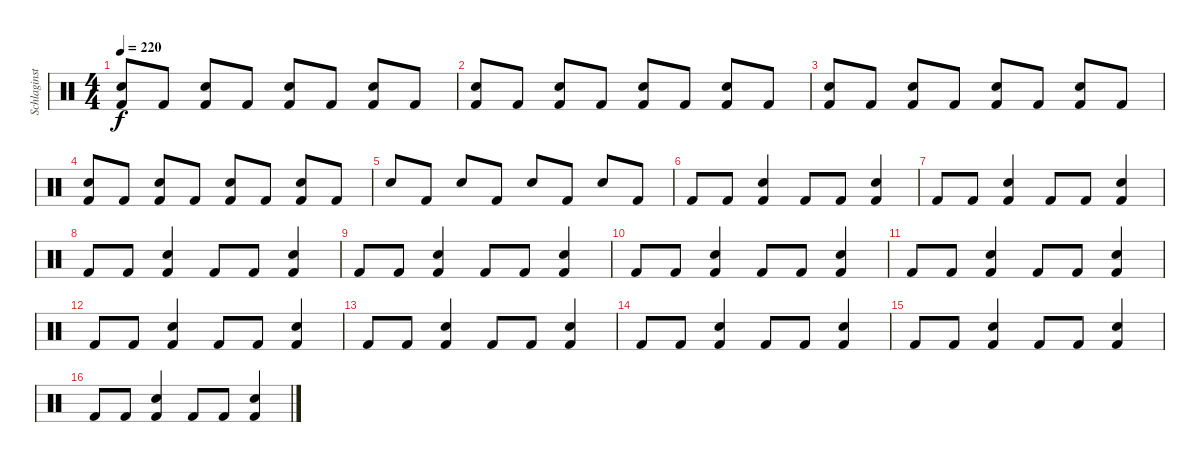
\track ("Schlaginstrumente - Auswahl" "Schlaginst") {instrument percussion}
\staff {score}
\articulation defaults
\ts (4 4)
\tempo 220
\clef neutral
\ks c
("Snare (hit) 2" "Kick (hit) 2").8{dy f} "Kick (hit) 2".8 ("Snare (hit) 2" "Kick (hit) 2").8 "Kick (hit) 2".8 ("Snare (hit) 2" "Kick (hit) 2").8 "Kick (hit) 2".8 ("Snare (hit) 2" "Kick (hit) 2").8 "Kick (hit) 2".8 |
("Snare (hit) 2" "Kick (hit) 2").8 "Kick (hit) 2".8 ("Snare (hit) 2" "Kick (hit) 2").8 "Kick (hit) 2".8 ("Snare (hit) 2" "Kick (hit) 2").8 "Kick (hit) 2".8 ("Snare (hit) 2" "Kick (hit) 2").8 "Kick (hit) 2".8 |
("Snare (hit) 2" "Kick (hit) 2").8 "Kick (hit) 2".8 ("Snare (hit) 2" "Kick (hit) 2").8 "Kick (hit) 2".8 ("Snare (hit) 2" "Kick (hit) 2").8 "Kick (hit) 2".8 ("Snare (hit) 2" "Kick (hit) 2").8 "Kick (hit) 2".8 |
("Snare (hit) 2" "Kick (hit) 2").8 "Kick (hit) 2".8 ("Snare (hit) 2" "Kick (hit) 2").8 "Kick (hit) 2".8 ("Snare (hit) 2" "Kick (hit) 2").8 "Kick (hit) 2".8 ("Snare (hit) 2" "Kick (hit) 2").8 "Kick (hit) 2".8 |
"Snare (hit) 2".8 "Kick (hit) 2".8 "Snare (hit) 2".8 "Kick (hit) 2".8 "Snare (hit) 2".8 "Kick (hit) 2".8 "Snare (hit) 2".8 "Kick (hit) 2".8 |
"Kick (hit) 2".8 "Kick (hit) 2".8 ("Snare (hit) 2" "Kick (hit) 2").4 "Kick (hit) 2".8 "Kick (hit) 2".8 ("Snare (hit) 2" "Kick (hit) 2").4 |
"Kick (hit) 2".8 "Kick (hit) 2".8 ("Snare (hit) 2" "Kick (hit) 2").4 "Kick (hit) 2".8 "Kick (hit) 2".8 ("Snare (hit) 2" "Kick (hit) 2").4 |
"Kick (hit) 2".8 "Kick (hit) 2".8 ("Snare (hit) 2" "Kick (hit) 2").4 "Kick (hit) 2".8 "Kick (hit) 2".8 ("Snare (hit) 2" "Kick (hit) 2").4 |
"Kick (hit) 2".8 "Kick (hit) 2".8 ("Snare (hit) 2" "Kick (hit) 2").4 "Kick (hit) 2".8 "Kick (hit) 2".8 ("Snare (hit) 2" "Kick (hit) 2").4 |
"Kick (hit) 2".8 "Kick (hit) 2".8 ("Snare (hit) 2" "Kick (hit) 2").4 "Kick (hit) 2".8 "Kick (hit) 2".8 ("Snare (hit) 2" "Kick (hit) 2").4 |
"Kick (hit) 2".8 "Kick (hit) 2".8 ("Snare (hit) 2" "Kick (hit) 2").4 "Kick (hit) 2".8 "Kick (hit) 2".8 ("Snare (hit) 2" "Kick (hit) 2").4 |
"Kick (hit) 2".8 "Kick (hit) 2".8 ("Snare (hit) 2" "Kick (hit) 2").4 "Kick (hit) 2".8 "Kick (hit) 2".8 ("Snare (hit) 2" "Kick (hit) 2").4 |
"Kick (hit) 2".8 "Kick (hit) 2".8 ("Snare (hit) 2" "Kick (hit) 2").4 "Kick (hit) 2".8 "Kick (hit) 2".8 ("Snare (hit) 2" "Kick (hit) 2").4 |
"Kick (hit) 2".8 "Kick (hit) 2".8 ("Snare (hit) 2" "Kick (hit) 2").4 "Kick (hit) 2".8 "Kick (hit) 2".8 ("Snare (hit) 2" "Kick (hit) 2").4 |
"Kick (hit) 2".8 "Kick (hit) 2".8 ("Snare (hit) 2" "Kick (hit) 2").4 "Kick (hit) 2".8 "Kick (hit) 2".8 ("Snare (hit) 2" "Kick (hit) 2").4 |
"Kick (hit) 2".8 "Kick (hit) 2".8 ("Snare (hit) 2" "Kick (hit) 2").4 "Kick (hit) 2".8 "Kick (hit) 2".8 ("Snare (hit) 2" "Kick (hit) 2").4
